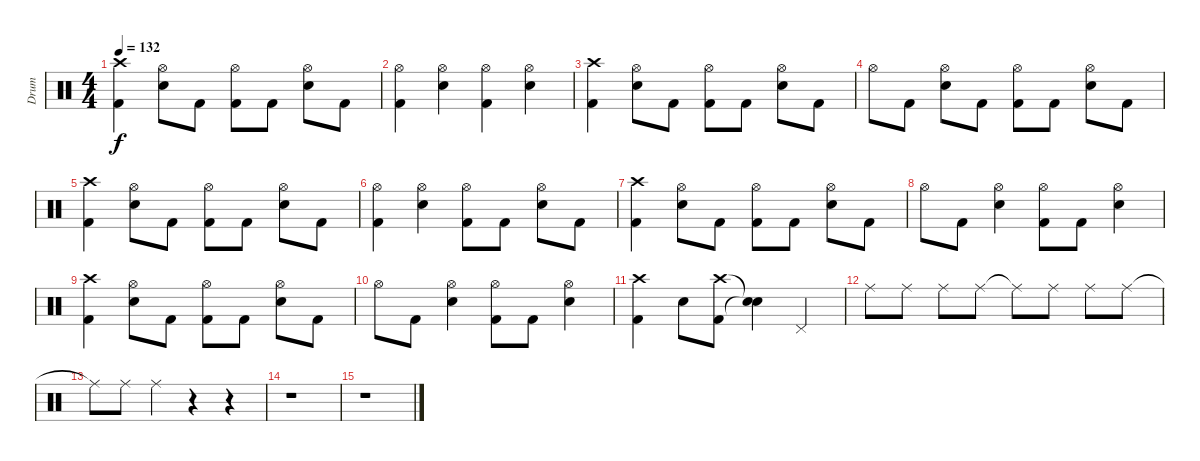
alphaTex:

\track ("Drum" "Drum") {instrument percussion}
\staff {score}
\articulation defaults
\ts (4 4)
\tempo 132
\clef neutral
\ks c
("Crash high (hit)" "Kick (hit) 2").4{dy f} ("Hi-Hat (open)" "Snare (hit) 2").8 "Kick (hit) 2".8 ("Hi-Hat (open)" "Kick (hit) 2").8 "Kick (hit) 2".8 ("Hi-Hat (open)" "Snare (hit) 2").8 "Kick (hit) 2".8 |
("Hi-Hat (open)" "Kick (hit) 2").4 ("Hi-Hat (open)" "Snare (hit) 2").4 ("Hi-Hat (open)" "Kick (hit) 2").4 ("Hi-Hat (open)" "Snare (hit) 2").4 |
("Crash high (hit)" "Kick (hit) 2").4 ("Hi-Hat (open)" "Snare (hit) 2").8 "Kick (hit) 2".8 ("Hi-Hat (open)" "Kick (hit) 2").8 "Kick (hit) 2".8 ("Hi-Hat (open)" "Snare (hit) 2").8 "Kick (hit) 2".8 |
"Hi-Hat (open)".8 "Kick (hit) 2".8 ("Hi-Hat (open)" "Snare (hit) 2").8 "Kick (hit) 2".8 ("Hi-Hat (open)" "Kick (hit) 2").8 "Kick (hit) 2".8 ("Hi-Hat (open)" "Snare (hit) 2").8 "Kick (hit) 2".8 |
("Crash high (hit)" "Kick (hit) 2").4 ("Hi-Hat (open)" "Snare (hit) 2").8 "Kick (hit) 2".8 ("Hi-Hat (open)" "Kick (hit) 2").8 "Kick (hit) 2".8 ("Hi-Hat (open)" "Snare (hit) 2").8 "Kick (hit) 2".8 |
("Hi-Hat (open)" "Kick (hit) 2").4 ("Hi-Hat (open)" "Snare (hit) 2").4 ("Hi-Hat (open)" "Kick (hit) 2").8 "Kick (hit) 2".8 ("Hi-Hat (open)" "Snare (hit) 2").8 "Kick (hit) 2".8 |
("Crash high (hit)" "Kick (hit) 2").4 ("Hi-Hat (open)" "Snare (hit) 2").8 "Kick (hit) 2".8 ("Hi-Hat (open)" "Kick (hit) 2").8 "Kick (hit) 2".8 ("Hi-Hat (open)" "Snare (hit) 2").8 "Kick (hit) 2".8 |
"Hi-Hat (open)".8 "Kick (hit) 2".8 ("Hi-Hat (open)" "Snare (hit) 2").4 ("Hi-Hat (open)" "Kick (hit) 2").8 "Kick (hit) 2".8 ("Hi-Hat (open)" "Snare (hit) 2").4 |
("Crash high (hit)" "Kick (hit) 2").4 ("Hi-Hat (open)" "Snare (hit) 2").8 "Kick (hit) 2".8 ("Hi-Hat (open)" "Kick (hit) 2").8 "Kick (hit) 2".8 ("Hi-Hat (open)" "Snare (hit) 2").8 "Kick (hit) 2".8 |
"Hi-Hat (open)".8 "Kick (hit) 2".8 ("Hi-Hat (open)" "Snare (hit) 2").4 ("Hi-Hat (open)" "Kick (hit) 2").8 "Kick (hit) 2".8 ("Hi-Hat (open)" "Snare (hit) 2").4 |
("Crash high (hit)" "Kick (hit) 2").4 "Snare (hit) 2".8 ("Crash high (hit)" "Kick (hit) 2").8 ("Snare (hit)"{t} "Snare (hit)"{t}).4 "Pedal Hi-Hat (hit)".4 |
"Ride (middle)".8 "Ride (middle)".8 "Ride (middle)".8 "Ride (middle)".8 "Ride (middle)"{t}.8 "Ride (middle)".8 "Ride (middle)".8 "Ride (middle)".8 |
"Ride (middle)"{t}.8 "Ride (middle)".8 "Ride (middle)".4 r.4 r.4 |
r.1 |
r.1
